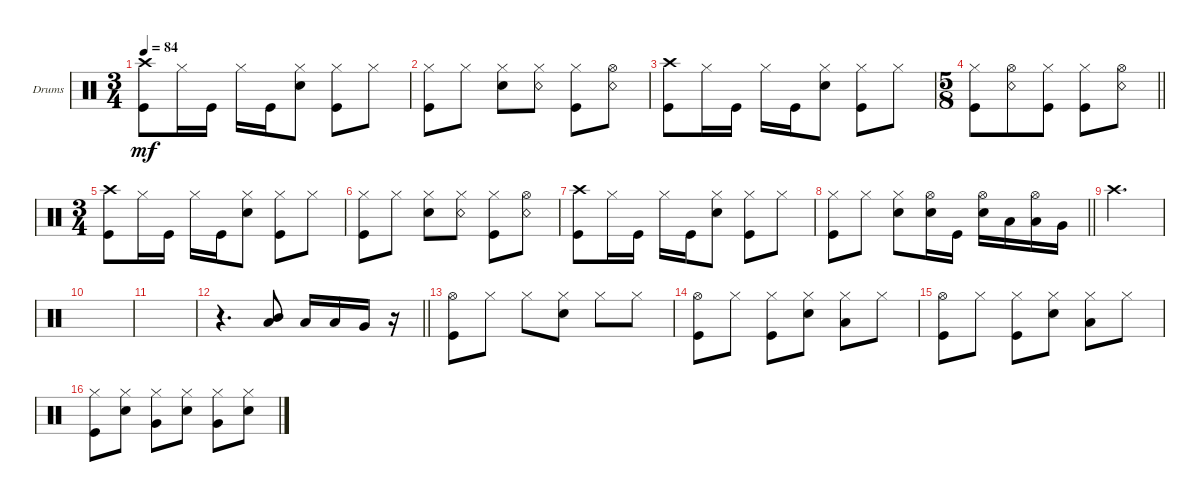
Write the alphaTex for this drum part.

\defaultSystemsLayout 4
\bracketExtendMode groupsimilarinstruments
\firstSystemTrackNameOrientation horizontal
\otherSystemsTrackNameOrientation horizontal
\track ("Drumkit" "Drums") {instrument percussion}
\staff {score}
\articulation defaults
\ts (3 4)
\tempo 84
\clef neutral
\scale
0.474178
\ks c
("Kick (hit)" "Crash high (hit)").8{dy mf} "Hi-Hat (closed)".16 "Kick (hit)".16 "Hi-Hat (closed)".16 "Kick (hit)".16 ("Snare (hit) 2" "Hi-Hat (closed)").8 ("Kick (hit)" "Hi-Hat (closed)").8 "Hi-Hat (closed)".8 |
\scale
0.262911 ("Kick (hit)" "Hi-Hat (closed)").8 "Hi-Hat (closed)".8 ("Snare (hit) 2" "Hi-Hat (closed)").8 ("Snare (rim shot)" "Hi-Hat (closed)").8 ("Kick (hit)" "Hi-Hat (closed)").8 ("Snare (rim shot)" "Hi-Hat (open)").8 |
\scale
0.262911 ("Kick (hit)" "Crash high (hit)").8 "Hi-Hat (closed)".16 "Kick (hit)".16 "Hi-Hat (closed)".16 "Kick (hit)".16 ("Snare (hit) 2" "Hi-Hat (closed)").8 ("Kick (hit)" "Hi-Hat (closed)").8 "Hi-Hat (closed)".8 |
\ts (5 8)
\scale
0.391473
\barLineRight lightlight
("Kick (hit)" "Hi-Hat (closed)").8 ("Snare (rim shot)" "Hi-Hat (open)").8 ("Kick (hit)" "Hi-Hat (closed)").8 ("Kick (hit)" "Hi-Hat (closed)").8 ("Snare (rim shot)" "Hi-Hat (open)").8 |
\ts (3 4)
\scale
0.391473 ("Kick (hit)" "Crash high (hit)").8 "Hi-Hat (closed)".16 "Kick (hit)".16 "Hi-Hat (closed)".16 "Kick (hit)".16 ("Snare (hit) 2" "Hi-Hat (closed)").8 ("Kick (hit)" "Hi-Hat (closed)").8 "Hi-Hat (closed)".8 |
\scale
0.217054 ("Kick (hit)" "Hi-Hat (closed)").8 "Hi-Hat (closed)".8 ("Snare (hit) 2" "Hi-Hat (closed)").8 ("Snare (rim shot)" "Hi-Hat (closed)").8 ("Kick (hit)" "Hi-Hat (closed)").8 ("Snare (rim shot)" "Hi-Hat (open)").8 |
\scale
0.333333 ("Kick (hit)" "Crash high (hit)").8 "Hi-Hat (closed)".16 "Kick (hit)".16 "Hi-Hat (closed)".16 "Kick (hit)".16 ("Snare (hit) 2" "Hi-Hat (closed)").8 ("Kick (hit)" "Hi-Hat (closed)").8 "Hi-Hat (closed)".8 |
\scale
0.333333
\barLineRight lightlight
("Kick (hit)" "Hi-Hat (closed)").8 "Hi-Hat (closed)".8 ("Snare (hit) 2" "Hi-Hat (closed)").8 ("Snare (hit) 2" "Hi-Hat (open)").16 "Kick (hit)".16 ("Snare (hit) 2" "Hi-Hat (open)").16 "Low Tom (hit)".16 ("Low Tom (hit)" "Hi-Hat (open)").16 "Very Low Tom (hit)".16 |
\scale
0.333333 "Crash high (hit)".2{d} |
\scale
0.333333 |
\scale
0.333333 |
\scale
0.333333
\barLineRight lightlight
r.4{d} ("Low Tom (hit)" "Mid Tom (hit)").8 "Low Tom (hit)".16 "Low Tom (hit)".16 "Very Low Tom (hit)".16 r.16 |
\scale
0.333333 ("Kick (hit)" "Hi-Hat (open)").8 "Hi-Hat (closed)".8 "Hi-Hat (closed)".8 ("Snare (hit) 2" "Hi-Hat (closed)").8 "Hi-Hat (closed)".8 "Hi-Hat (closed)".8 |
\scale
0.333333 ("Kick (hit)" "Hi-Hat (open)").8 "Hi-Hat (closed)".8 ("Hi-Hat (closed)" "Kick (hit)").8 ("Snare (hit) 2" "Hi-Hat (closed)").8 ("Low Tom (hit)" "Hi-Hat (closed)").8 "Hi-Hat (closed)".8 |
\scale
0.333333 ("Kick (hit)" "Hi-Hat (open)").8 "Hi-Hat (closed)".8 ("Kick (hit)" "Hi-Hat (closed)").8 ("Snare (hit) 2" "Hi-Hat (closed)").8 ("Hi-Hat (closed)" "Low Tom (hit)").8 "Hi-Hat (closed)".8 |
\scale
0.217054 ("Kick (hit)" "Hi-Hat (closed)").8 ("Snare (hit) 2" "Hi-Hat (closed)").8 ("Very Low Tom (hit)" "Hi-Hat (closed)").8 ("Snare (hit) 2" "Hi-Hat (closed)").8 ("Very Low Tom (hit)" "Hi-Hat (closed)").8 ("Hi-Hat (closed)" "Snare (hit) 2").8
